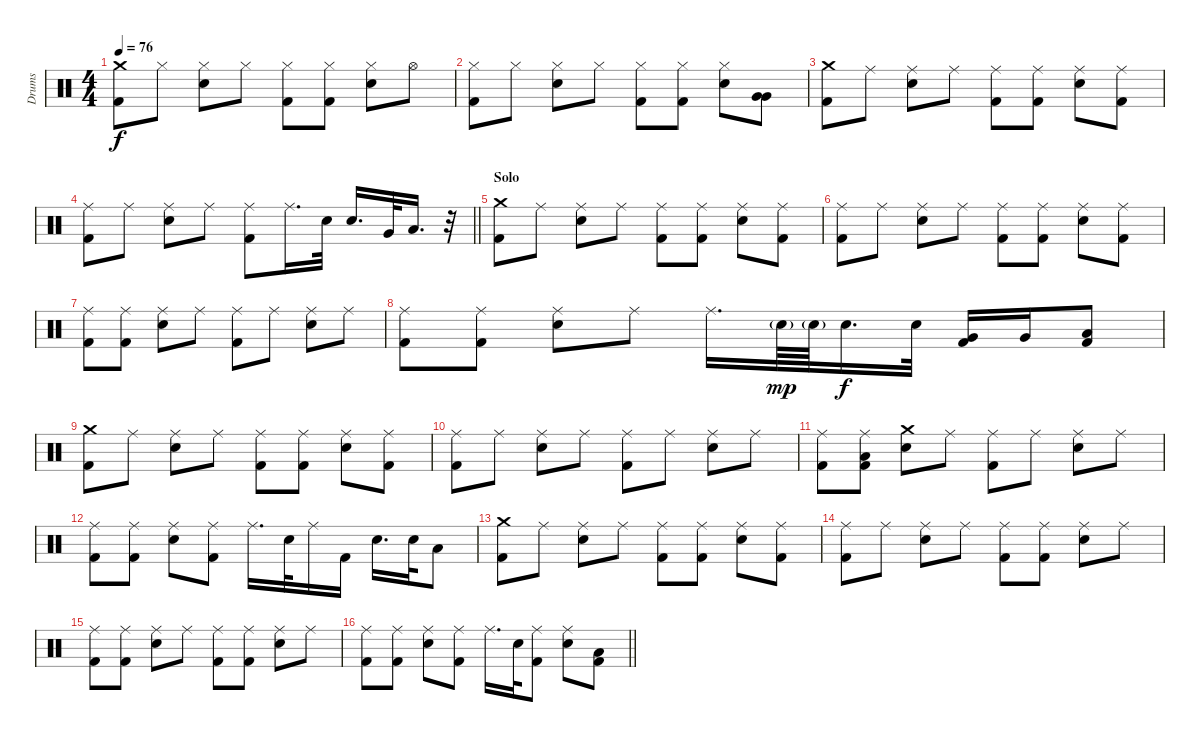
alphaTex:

\track ("Drums" "Drums") {instrument percussion}
\staff {score}
\articulation defaults
\ts (4 4)
\tempo 76
\clef neutral
\ks aminor
("Crash medium (hit)" "Kick (hit) 2").8{dy f} "Hi-Hat (closed)".8 ("Hi-Hat (closed)" "Electric Snare (hit)").8 "Hi-Hat (closed)".8 ("Hi-Hat (closed)" "Kick (hit) 2").8 ("Hi-Hat (closed)" "Kick (hit) 2").8 ("Hi-Hat (closed)" "Electric Snare (hit)").8 "Hi-Hat (open)".8 |
("Hi-Hat (closed)" "Kick (hit) 2").8 "Hi-Hat (closed)".8 ("Hi-Hat (closed)" "Electric Snare (hit)").8 "Hi-Hat (closed)".8 ("Hi-Hat (closed)" "Kick (hit) 2").8 ("Hi-Hat (closed)" "Kick (hit) 2").8 ("Hi-Hat (closed)" "Electric Snare (hit)").8 ("Very Low Tom (hit)" "Very Low Tom (hit)").8 |
("Crash medium (hit)" "Kick (hit) 2").8 "Ride (middle)".8 ("Ride (middle)" "Electric Snare (hit)").8 "Ride (middle)".8 ("Ride (middle)" "Kick (hit) 2").8 ("Ride (middle)" "Kick (hit) 2").8 ("Ride (middle)" "Electric Snare (hit)").8 ("Ride (middle)" "Kick (hit) 2").8 |
\barLineRight lightlight
("Ride (middle)" "Kick (hit) 2").8 "Ride (middle)".8 ("Ride (middle)" "Electric Snare (hit)").8 "Ride (middle)".8 ("Ride (middle)" "Kick (hit) 2").8 "Ride (middle)".16{d} "Electric Snare (hit)".32 "Electric Snare (hit)".16{d} "Very Low Tom (hit)".32 "Low Floor Tom (hit)".16{d} r.32 |
\section ("" "Solo")
("Crash medium (hit)" "Kick (hit) 2").8 "Ride (middle)".8 ("Ride (middle)" "Electric Snare (hit)").8 "Ride (middle)".8 ("Ride (middle)" "Kick (hit) 2").8 ("Ride (middle)" "Kick (hit) 2").8 ("Ride (middle)" "Electric Snare (hit)").8 ("Ride (middle)" "Kick (hit) 2").8 |
("Ride (middle)" "Kick (hit) 2").8 "Ride (middle)".8 ("Ride (middle)" "Electric Snare (hit)").8 "Ride (middle)".8 ("Ride (middle)" "Kick (hit) 2").8 ("Ride (middle)" "Kick (hit) 2").8 ("Ride (middle)" "Electric Snare (hit)").8 ("Ride (middle)" "Kick (hit) 2").8 |
("Ride (middle)" "Kick (hit) 2").8 ("Ride (middle)" "Kick (hit) 2").8 ("Ride (middle)" "Electric Snare (hit)").8 "Ride (middle)".8 ("Ride (middle)" "Kick (hit) 2").8 "Ride (middle)".8 ("Ride (middle)" "Electric Snare (hit)").8 "Ride (middle)".8 |
("Ride (middle)" "Kick (hit) 2").8 ("Ride (middle)" "Kick (hit) 2").8 ("Ride (middle)" "Electric Snare (hit)").8 "Ride (middle)".8 "Ride (middle)".16{d} "Electric Snare (hit)"{g}.64{dy mp} "Electric Snare (hit)"{g}.64 "Electric Snare (hit)".16{d dy f} "Electric Snare (hit)".32 ("Very Low Tom (hit)" "Kick (hit) 2").16 "Very Low Tom (hit)".16 ("Low Floor Tom (hit)" "Kick (hit) 2").8 |
("Crash medium (hit)" "Kick (hit) 2").8 "Ride (middle)".8 ("Ride (middle)" "Electric Snare (hit)").8 "Ride (middle)".8 ("Ride (middle)" "Kick (hit) 2").8 ("Ride (middle)" "Kick (hit) 2").8 ("Ride (middle)" "Electric Snare (hit)").8 ("Ride (middle)" "Kick (hit) 2").8 |
("Ride (middle)" "Kick (hit) 2").8 "Ride (middle)".8 ("Ride (middle)" "Electric Snare (hit)").8 "Ride (middle)".8 ("Ride (middle)" "Kick (hit) 2").8 "Ride (middle)".8 ("Ride (middle)" "Electric Snare (hit)").8 "Ride (middle)".8 |
("Ride (middle)" "Kick (hit) 2").8 ("Ride (middle)" "Low Floor Tom (hit)" "Kick (hit) 2").8 ("Crash medium (hit)" "Electric Snare (hit)").8 "Ride (middle)".8 ("Ride (middle)" "Kick (hit) 2").8 "Ride (middle)".8 ("Ride (middle)" "Electric Snare (hit)").8 "Ride (middle)".8 |
("Ride (middle)" "Kick (hit) 2").8 ("Ride (middle)" "Kick (hit) 2").8 ("Ride (middle)" "Electric Snare (hit)").8 ("Ride (middle)" "Kick (hit) 2").8 "Ride (middle)".16{d} "Electric Snare (hit)".32 "Ride (middle)".16 "Kick (hit) 2".16 "Electric Snare (hit)".16{d} "Electric Snare (hit)".32 "Low Floor Tom (hit)".8 |
("Crash medium (hit)" "Kick (hit) 2").8 "Ride (middle)".8 ("Ride (middle)" "Electric Snare (hit)").8 "Ride (middle)".8 ("Ride (middle)" "Kick (hit) 2").8 ("Ride (middle)" "Kick (hit) 2").8 ("Ride (middle)" "Electric Snare (hit)").8 ("Ride (middle)" "Kick (hit) 2").8 |
("Ride (middle)" "Kick (hit) 2").8 "Ride (middle)".8 ("Ride (middle)" "Electric Snare (hit)").8 "Ride (middle)".8 ("Ride (middle)" "Kick (hit) 2").8 ("Ride (middle)" "Kick (hit) 2").8 ("Ride (middle)" "Electric Snare (hit)").8 "Ride (middle)".8 |
("Ride (middle)" "Kick (hit) 2").8 ("Ride (middle)" "Kick (hit) 2").8 ("Ride (middle)" "Electric Snare (hit)").8 "Ride (middle)".8 ("Ride (middle)" "Kick (hit) 2").8 ("Ride (middle)" "Kick (hit) 2").8 ("Ride (middle)" "Electric Snare (hit)").8 "Ride (middle)".8 |
\barLineRight lightlight
("Ride (middle)" "Kick (hit) 2").8 ("Ride (middle)" "Kick (hit) 2").8 ("Ride (middle)" "Electric Snare (hit)").8 ("Ride (middle)" "Kick (hit) 2").8 "Ride (middle)".16{d} "Electric Snare (hit)".32 ("Ride (middle)" "Kick (hit) 2").8 ("Ride (middle)" "Electric Snare (hit)").8 ("Low Floor Tom (hit)" "Kick (hit) 2").8
